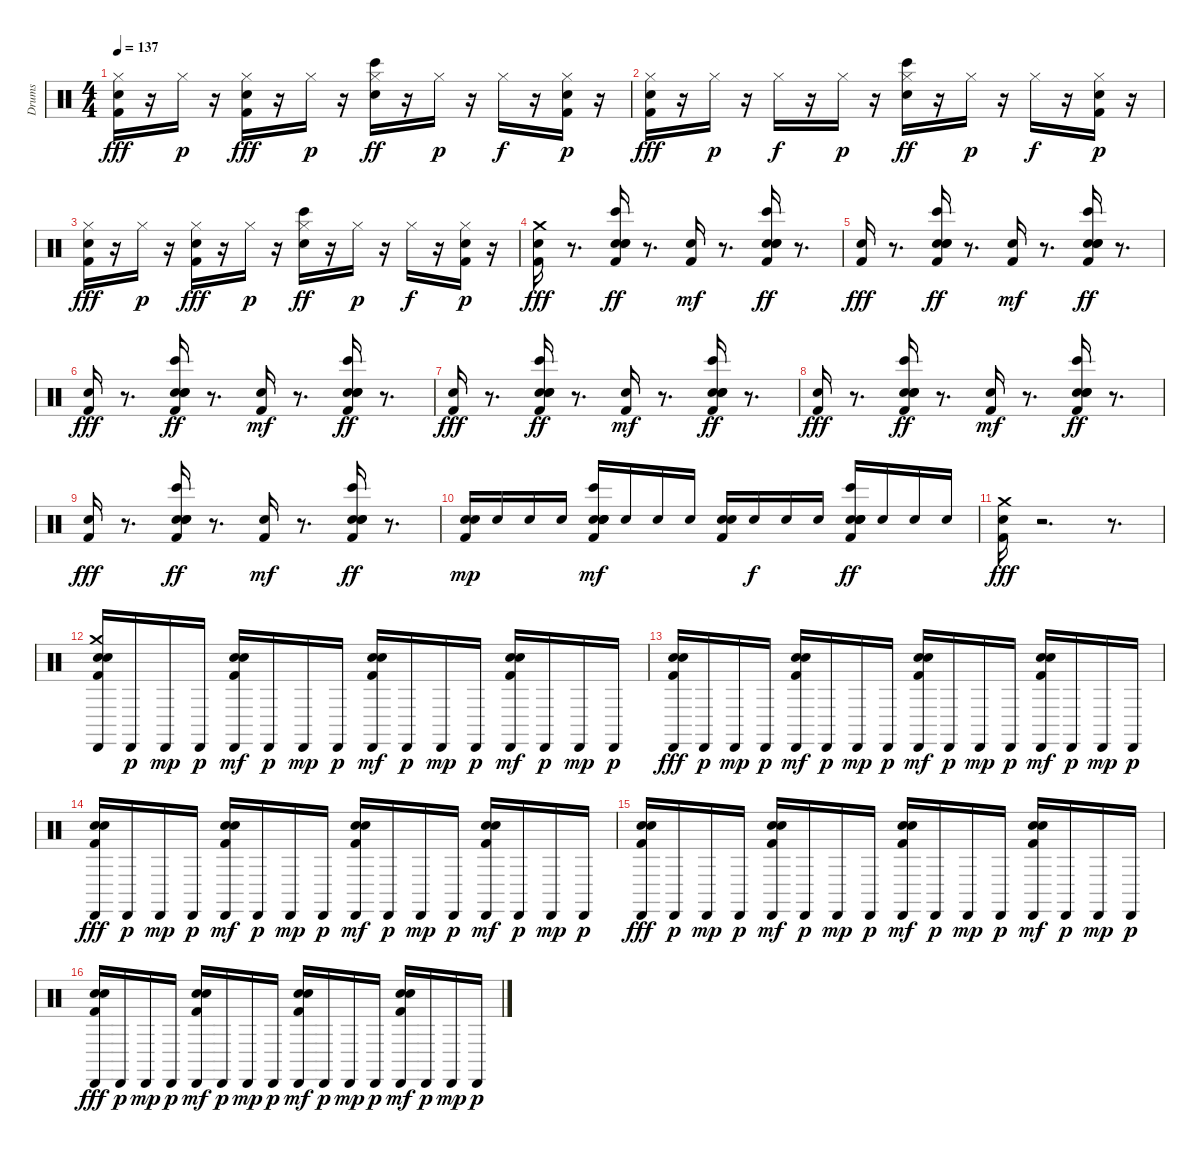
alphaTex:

\track ("Drums" "Drums") {instrument percussion}
\staff {score}
\articulation defaults
\ts (4 4)
\tempo 137
\clef neutral
\ks c
("Kick (hit) 2" "Snare (hit)" "Hi-Hat (closed)").16{dy fff} r.16 "Hi-Hat (closed)".16{dy p} r.16 ("Kick (hit) 2" "Snare (hit)" "Hi-Hat (closed)").16{dy fff} r.16 "Hi-Hat (closed)".16{dy p} r.16 ("Snare (hit) 2" "Bongo High (hit)" "Hi-Hat (closed)").16{dy ff} r.16 "Hi-Hat (closed)".16{dy p} r.16 "Hi-Hat (closed)".16{dy f} r.16 ("Kick (hit) 2" "Snare (hit)" "Hi-Hat (closed)").16{dy p} r.16 |
("Kick (hit) 2" "Snare (hit)" "Hi-Hat (closed)").16{dy fff} r.16 "Hi-Hat (closed)".16{dy p} r.16 "Hi-Hat (closed)".16{dy f} r.16 "Hi-Hat (closed)".16{dy p} r.16 ("Snare (hit) 2" "Bongo High (hit)" "Hi-Hat (closed)").16{dy ff} r.16 "Hi-Hat (closed)".16{dy p} r.16 "Hi-Hat (closed)".16{dy f} r.16 ("Kick (hit) 2" "Snare (hit)" "Hi-Hat (closed)").16{dy p} r.16 |
("Kick (hit) 2" "Snare (hit)" "Hi-Hat (closed)").16{dy fff} r.16 "Hi-Hat (closed)".16{dy p} r.16 ("Kick (hit) 2" "Snare (hit)" "Hi-Hat (closed)").16{dy fff} r.16 "Hi-Hat (closed)".16{dy p} r.16 ("Snare (hit) 2" "Bongo High (hit)" "Hi-Hat (closed)").16{dy ff} r.16 "Hi-Hat (closed)".16{dy p} r.16 "Hi-Hat (closed)".16{dy f} r.16 ("Kick (hit) 2" "Snare (hit)" "Hi-Hat (closed)").16{dy p} r.16 |
("Crash medium (hit)" "Kick (hit) 2" "Snare (hit)").16{dy fff} r.8{d} ("Snare (hit)" "Kick (hit) 2" "Bongo High (hit)" "Snare (hit) 2" "Hand Clap (hit)").16{dy ff} r.8{d} ("Snare (hit)" "Kick (hit) 2").16{dy mf} r.8{d} ("Snare (hit)" "Kick (hit) 2" "Bongo High (hit)" "Snare (hit) 2" "Hand Clap (hit)").16{dy ff} r.8{d} |
("Kick (hit) 2" "Snare (hit)").16{dy fff} r.8{d} ("Snare (hit)" "Kick (hit) 2" "Bongo High (hit)" "Snare (hit) 2" "Hand Clap (hit)").16{dy ff} r.8{d} ("Snare (hit)" "Kick (hit) 2").16{dy mf} r.8{d} ("Snare (hit)" "Kick (hit) 2" "Bongo High (hit)" "Snare (hit) 2" "Hand Clap (hit)").16{dy ff} r.8{d} |
("Kick (hit) 2" "Snare (hit)").16{dy fff} r.8{d} ("Snare (hit)" "Kick (hit) 2" "Bongo High (hit)" "Snare (hit) 2" "Hand Clap (hit)").16{dy ff} r.8{d} ("Snare (hit)" "Kick (hit) 2").16{dy mf} r.8{d} ("Snare (hit)" "Kick (hit) 2" "Bongo High (hit)" "Snare (hit) 2" "Hand Clap (hit)").16{dy ff} r.8{d} |
("Kick (hit) 2" "Snare (hit)").16{dy fff} r.8{d} ("Snare (hit)" "Kick (hit) 2" "Bongo High (hit)" "Snare (hit) 2" "Hand Clap (hit)").16{dy ff} r.8{d} ("Snare (hit)" "Kick (hit) 2").16{dy mf} r.8{d} ("Snare (hit)" "Kick (hit) 2" "Bongo High (hit)" "Snare (hit) 2" "Hand Clap (hit)").16{dy ff} r.8{d} |
("Kick (hit) 2" "Snare (hit)").16{dy fff} r.8{d} ("Snare (hit)" "Kick (hit) 2" "Bongo High (hit)" "Snare (hit) 2" "Hand Clap (hit)").16{dy ff} r.8{d} ("Snare (hit)" "Kick (hit) 2").16{dy mf} r.8{d} ("Snare (hit)" "Kick (hit) 2" "Bongo High (hit)" "Snare (hit) 2" "Hand Clap (hit)").16{dy ff} r.8{d} |
("Kick (hit) 2" "Snare (hit)").16{dy fff} r.8{d} ("Snare (hit)" "Kick (hit) 2" "Bongo High (hit)" "Snare (hit) 2" "Hand Clap (hit)").16{dy ff} r.8{d} ("Snare (hit)" "Kick (hit) 2").16{dy mf} r.8{d} ("Snare (hit)" "Kick (hit) 2" "Bongo High (hit)" "Snare (hit) 2" "Hand Clap (hit)").16{dy ff} r.8{d} |
("Kick (hit) 2" "Snare (hit)" "Electric Snare (hit)").16{dy mp} "Electric Snare (hit)".16 "Electric Snare (hit)".16 "Electric Snare (hit)".16 ("Snare (hit)" "Kick (hit) 2" "Bongo High (hit)" "Snare (hit) 2" "Hand Clap (hit)" "Electric Snare (hit)").16{dy mf} "Electric Snare (hit)".16 "Electric Snare (hit)".16 "Electric Snare (hit)".16 ("Snare (hit)" "Kick (hit) 2" "Electric Snare (hit)").16 "Electric Snare (hit)".16{dy f} "Electric Snare (hit)".16 "Electric Snare (hit)".16 ("Snare (hit)" "Kick (hit) 2" "Bongo High (hit)" "Snare (hit) 2" "Hand Clap (hit)" "Electric Snare (hit)").16{dy ff} "Electric Snare (hit)".16 "Electric Snare (hit)".16 "Electric Snare (hit)".16 |
("Crash medium (hit)" "Kick (hit) 2" "Snare (hit)").16{dy fff} r.2{d} r.8{d} |
("Crash medium (hit)" "Cabasa (hit)" "Kick (hit) 2" "Snare (hit)" "Hand Clap (hit)").16 "Cabasa (hit)".16{dy p} "Cabasa (hit)".16{dy mp} "Cabasa (hit)".16{dy p} ("Cabasa (hit)" "Snare (hit)" "Kick (hit) 2" "Hand Clap (hit)").16{dy mf} "Cabasa (hit)".16{dy p} "Cabasa (hit)".16{dy mp} "Cabasa (hit)".16{dy p} ("Cabasa (hit)" "Snare (hit)" "Kick (hit) 2" "Hand Clap (hit)").16{dy mf} "Cabasa (hit)".16{dy p} "Cabasa (hit)".16{dy mp} "Cabasa (hit)".16{dy p} ("Cabasa (hit)" "Snare (hit)" "Kick (hit) 2" "Hand Clap (hit)").16{dy mf} "Cabasa (hit)".16{dy p} "Cabasa (hit)".16{dy mp} "Cabasa (hit)".16{dy p} |
("Cabasa (hit)" "Kick (hit) 2" "Snare (hit)" "Hand Clap (hit)").16{dy fff} "Cabasa (hit)".16{dy p} "Cabasa (hit)".16{dy mp} "Cabasa (hit)".16{dy p} ("Cabasa (hit)" "Snare (hit)" "Kick (hit) 2" "Hand Clap (hit)").16{dy mf} "Cabasa (hit)".16{dy p} "Cabasa (hit)".16{dy mp} "Cabasa (hit)".16{dy p} ("Cabasa (hit)" "Snare (hit)" "Kick (hit) 2" "Hand Clap (hit)").16{dy mf} "Cabasa (hit)".16{dy p} "Cabasa (hit)".16{dy mp} "Cabasa (hit)".16{dy p} ("Cabasa (hit)" "Snare (hit)" "Kick (hit) 2" "Hand Clap (hit)").16{dy mf} "Cabasa (hit)".16{dy p} "Cabasa (hit)".16{dy mp} "Cabasa (hit)".16{dy p} |
("Cabasa (hit)" "Kick (hit) 2" "Snare (hit)" "Hand Clap (hit)").16{dy fff} "Cabasa (hit)".16{dy p} "Cabasa (hit)".16{dy mp} "Cabasa (hit)".16{dy p} ("Cabasa (hit)" "Snare (hit)" "Kick (hit) 2" "Hand Clap (hit)").16{dy mf} "Cabasa (hit)".16{dy p} "Cabasa (hit)".16{dy mp} "Cabasa (hit)".16{dy p} ("Cabasa (hit)" "Snare (hit)" "Kick (hit) 2" "Hand Clap (hit)").16{dy mf} "Cabasa (hit)".16{dy p} "Cabasa (hit)".16{dy mp} "Cabasa (hit)".16{dy p} ("Cabasa (hit)" "Snare (hit)" "Kick (hit) 2" "Hand Clap (hit)").16{dy mf} "Cabasa (hit)".16{dy p} "Cabasa (hit)".16{dy mp} "Cabasa (hit)".16{dy p} |
("Cabasa (hit)" "Kick (hit) 2" "Snare (hit)" "Hand Clap (hit)").16{dy fff} "Cabasa (hit)".16{dy p} "Cabasa (hit)".16{dy mp} "Cabasa (hit)".16{dy p} ("Cabasa (hit)" "Snare (hit)" "Kick (hit) 2" "Hand Clap (hit)").16{dy mf} "Cabasa (hit)".16{dy p} "Cabasa (hit)".16{dy mp} "Cabasa (hit)".16{dy p} ("Cabasa (hit)" "Snare (hit)" "Kick (hit) 2" "Hand Clap (hit)").16{dy mf} "Cabasa (hit)".16{dy p} "Cabasa (hit)".16{dy mp} "Cabasa (hit)".16{dy p} ("Cabasa (hit)" "Snare (hit)" "Kick (hit) 2" "Hand Clap (hit)").16{dy mf} "Cabasa (hit)".16{dy p} "Cabasa (hit)".16{dy mp} "Cabasa (hit)".16{dy p} |
("Cabasa (hit)" "Kick (hit) 2" "Snare (hit)" "Hand Clap (hit)").16{dy fff} "Cabasa (hit)".16{dy p} "Cabasa (hit)".16{dy mp} "Cabasa (hit)".16{dy p} ("Cabasa (hit)" "Snare (hit)" "Kick (hit) 2" "Hand Clap (hit)").16{dy mf} "Cabasa (hit)".16{dy p} "Cabasa (hit)".16{dy mp} "Cabasa (hit)".16{dy p} ("Cabasa (hit)" "Snare (hit)" "Kick (hit) 2" "Hand Clap (hit)").16{dy mf} "Cabasa (hit)".16{dy p} "Cabasa (hit)".16{dy mp} "Cabasa (hit)".16{dy p} ("Cabasa (hit)" "Snare (hit)" "Kick (hit) 2" "Hand Clap (hit)").16{dy mf} "Cabasa (hit)".16{dy p} "Cabasa (hit)".16{dy mp} "Cabasa (hit)".16{dy p}
